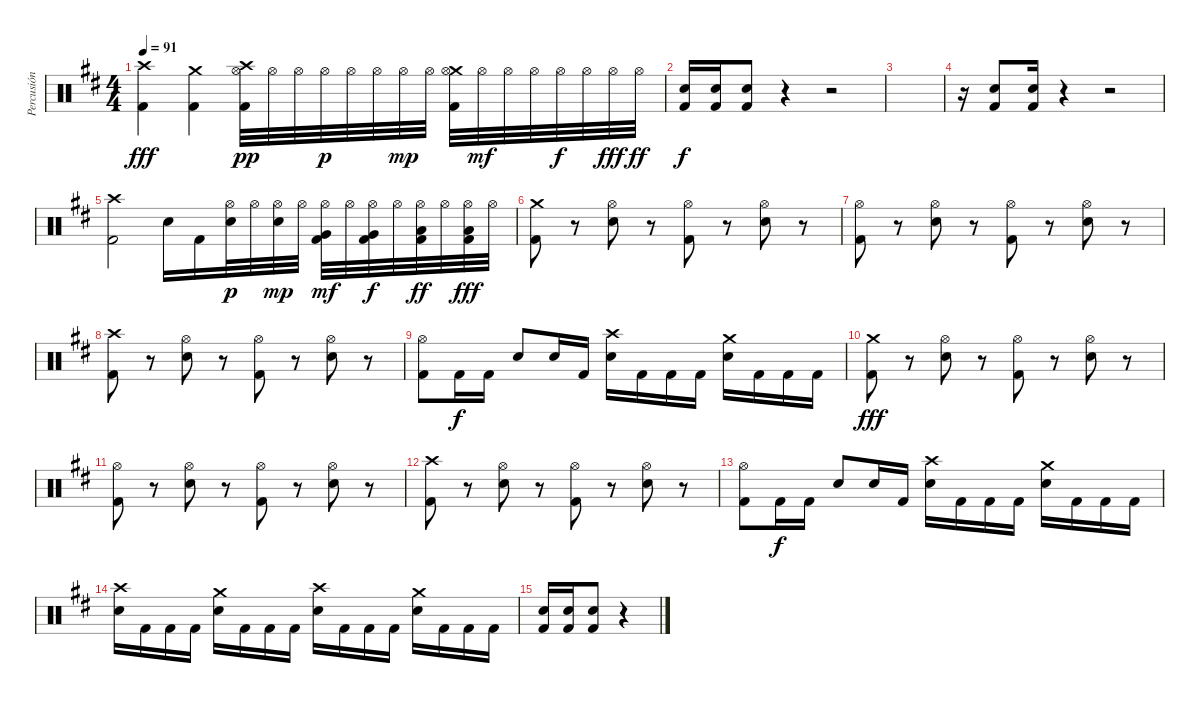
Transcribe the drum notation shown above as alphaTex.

\track ("Percusión" "Percusión") {instrument percussion}
\staff {score}
\articulation defaults
\ts (4 4)
\tempo 91
\clef neutral
\ks d
("Crash high (hit)" "Kick (hit) 2").4{dy fff} ("Crash medium (hit)" "Kick (hit) 2").4 ("Crash high (hit)" "Hi-Hat (open)" "Kick (hit) 2").32{dy pp} "Hi-Hat (open)".32 "Hi-Hat (open)".32 "Hi-Hat (open)".32{dy p} "Hi-Hat (open)".32 "Hi-Hat (open)".32 "Hi-Hat (open)".32{dy mp} "Hi-Hat (open)".32 ("Crash medium (hit)" "Hi-Hat (open)" "Kick (hit) 2").32 "Hi-Hat (open)".32{dy mf} "Hi-Hat (open)".32 "Hi-Hat (open)".32 "Hi-Hat (open)".32{dy f} "Hi-Hat (open)".32 "Hi-Hat (open)".32{dy fff} "Hi-Hat (open)".32{dy ff} |
("Electric Snare (hit)" "Kick (hit) 2").16{dy f} ("Electric Snare (hit)" "Kick (hit) 2").16 ("Electric Snare (hit)" "Kick (hit) 2").8 r.4 r.2 |
|
r.16 ("Electric Snare (hit)" "Kick (hit) 2").8 ("Electric Snare (hit)" "Kick (hit) 2").16 r.4 r.2 |
("Crash high (hit)" "Kick (hit) 2").2 "Electric Snare (hit)".16 "Kick (hit) 2".16 ("Hi-Hat (open)" "Electric Snare (hit)").32{dy p} "Hi-Hat (open)".32 ("Hi-Hat (open)" "Electric Snare (hit)").32{dy mp} "Hi-Hat (open)".32 ("Hi-Hat (open)" "Very Low Tom (hit)" "Kick (hit) 2").32{dy mf} "Hi-Hat (open)".32 ("Hi-Hat (open)" "Very Low Tom (hit)" "Kick (hit) 2").32{dy f} "Hi-Hat (open)".32 ("Hi-Hat (open)" "Low Floor Tom (hit)" "Kick (hit) 2").32{dy ff} "Hi-Hat (open)".32 ("Hi-Hat (open)" "Low Floor Tom (hit)" "Kick (hit) 2").32{dy fff} "Hi-Hat (open)".32 |
("Crash medium (hit)" "Kick (hit) 2").8 r.8 ("Hi-Hat (open)" "Electric Snare (hit)").8 r.8 ("Hi-Hat (open)" "Kick (hit) 2").8 r.8 ("Hi-Hat (open)" "Electric Snare (hit)").8 r.8 |
("Hi-Hat (open)" "Kick (hit) 2").8 r.8 ("Hi-Hat (open)" "Electric Snare (hit)").8 r.8 ("Hi-Hat (open)" "Kick (hit) 2").8 r.8 ("Hi-Hat (open)" "Electric Snare (hit)").8 r.8 |
("Crash high (hit)" "Kick (hit) 2").8 r.8 ("Hi-Hat (open)" "Electric Snare (hit)").8 r.8 ("Hi-Hat (open)" "Kick (hit) 2").8 r.8 ("Hi-Hat (open)" "Electric Snare (hit)").8 r.8 |
("Hi-Hat (open)" "Kick (hit) 2").8 "Kick (hit) 2".16{dy f} "Kick (hit) 2".16 "Electric Snare (hit)".8 "Electric Snare (hit)".16 "Kick (hit) 2".16 ("Crash high (hit)" "Electric Snare (hit)").16 "Kick (hit) 2".16 "Kick (hit) 2".16 "Kick (hit) 2".16 ("Crash medium (hit)" "Electric Snare (hit)").16 "Kick (hit) 2".16 "Kick (hit) 2".16 "Kick (hit) 2".16 |
("Crash medium (hit)" "Kick (hit) 2").8{dy fff} r.8 ("Hi-Hat (open)" "Electric Snare (hit)").8 r.8 ("Hi-Hat (open)" "Kick (hit) 2").8 r.8 ("Hi-Hat (open)" "Electric Snare (hit)").8 r.8 |
("Hi-Hat (open)" "Kick (hit) 2").8 r.8 ("Hi-Hat (open)" "Electric Snare (hit)").8 r.8 ("Hi-Hat (open)" "Kick (hit) 2").8 r.8 ("Hi-Hat (open)" "Electric Snare (hit)").8 r.8 |
("Crash high (hit)" "Kick (hit) 2").8 r.8 ("Hi-Hat (open)" "Electric Snare (hit)").8 r.8 ("Hi-Hat (open)" "Kick (hit) 2").8 r.8 ("Hi-Hat (open)" "Electric Snare (hit)").8 r.8 |
("Hi-Hat (open)" "Kick (hit) 2").8 "Kick (hit) 2".16{dy f} "Kick (hit) 2".16 "Electric Snare (hit)".8 "Electric Snare (hit)".16 "Kick (hit) 2".16 ("Crash high (hit)" "Electric Snare (hit)").16 "Kick (hit) 2".16 "Kick (hit) 2".16 "Kick (hit) 2".16 ("Crash medium (hit)" "Electric Snare (hit)").16 "Kick (hit) 2".16 "Kick (hit) 2".16 "Kick (hit) 2".16 |
("Crash high (hit)" "Electric Snare (hit)").16 "Kick (hit) 2".16 "Kick (hit) 2".16 "Kick (hit) 2".16 ("Crash medium (hit)" "Electric Snare (hit)").16 "Kick (hit) 2".16 "Kick (hit) 2".16 "Kick (hit) 2".16 ("Crash high (hit)" "Electric Snare (hit)").16 "Kick (hit) 2".16 "Kick (hit) 2".16 "Kick (hit) 2".16 ("Crash medium (hit)" "Electric Snare (hit)").16 "Kick (hit) 2".16 "Kick (hit) 2".16 "Kick (hit) 2".16 |
("Electric Snare (hit)" "Kick (hit) 2").16 ("Electric Snare (hit)" "Kick (hit) 2").16 ("Electric Snare (hit)" "Kick (hit) 2").8 r.4
